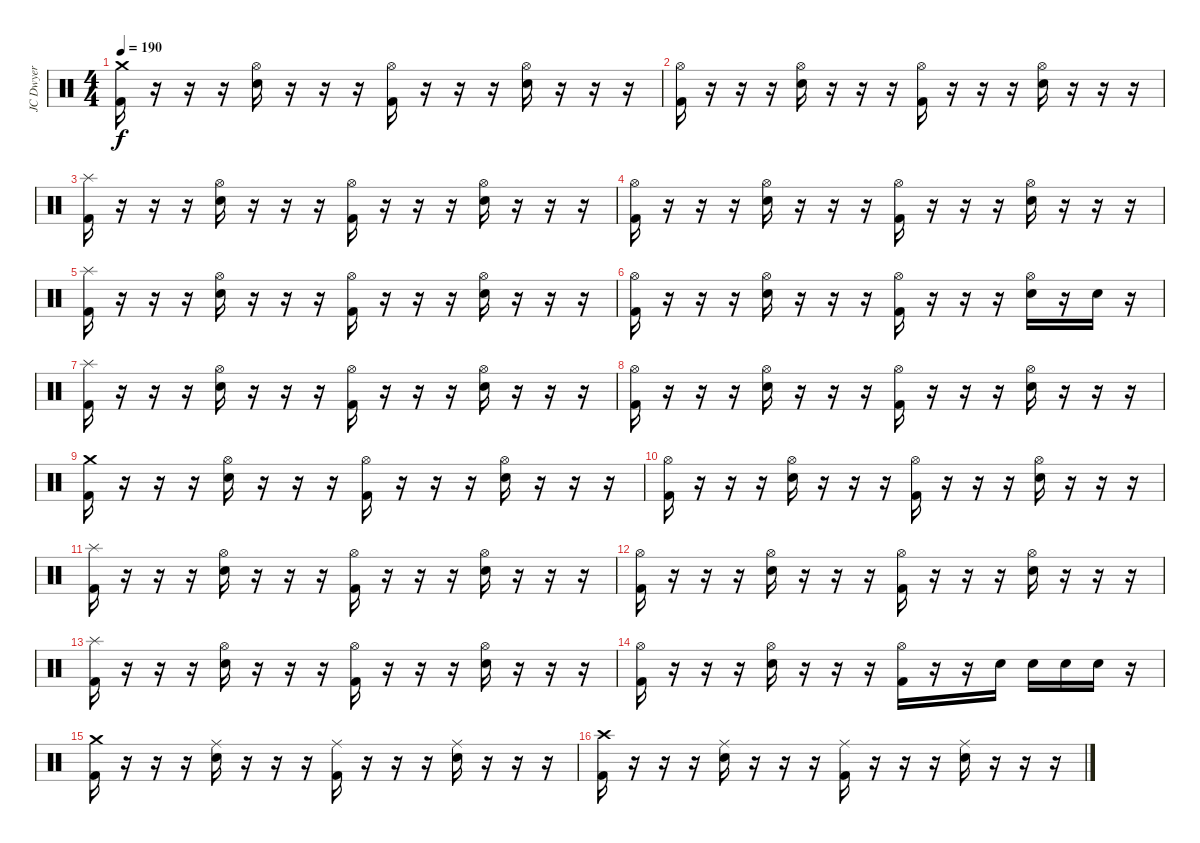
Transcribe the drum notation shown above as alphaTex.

\track ("JC Dwyer" "JC Dwyer") {instrument percussion}
\staff {score}
\articulation defaults
\ts (4 4)
\tempo 190
\clef neutral
\ks c
("Crash medium (hit)" "Kick (hit) 2").16{dy f} r.16 r.16 r.16 ("Hi-Hat (open)" "Electric Snare (hit)").16 r.16 r.16 r.16 ("Hi-Hat (open)" "Kick (hit) 2").16 r.16 r.16 r.16 ("Hi-Hat (open)" "Electric Snare (hit)").16 r.16 r.16 r.16 |
("Hi-Hat (open)" "Kick (hit) 2").16 r.16 r.16 r.16 ("Hi-Hat (open)" "Electric Snare (hit)").16 r.16 r.16 r.16 ("Hi-Hat (open)" "Kick (hit) 2").16 r.16 r.16 r.16 ("Hi-Hat (open)" "Electric Snare (hit)").16 r.16 r.16 r.16 |
("Splash (hit)" "Kick (hit) 2").16 r.16 r.16 r.16 ("Hi-Hat (open)" "Electric Snare (hit)").16 r.16 r.16 r.16 ("Hi-Hat (open)" "Kick (hit) 2").16 r.16 r.16 r.16 ("Hi-Hat (open)" "Electric Snare (hit)").16 r.16 r.16 r.16 |
("Hi-Hat (open)" "Kick (hit) 2").16 r.16 r.16 r.16 ("Hi-Hat (open)" "Electric Snare (hit)").16 r.16 r.16 r.16 ("Hi-Hat (open)" "Kick (hit) 2").16 r.16 r.16 r.16 ("Hi-Hat (open)" "Electric Snare (hit)").16 r.16 r.16 r.16 |
("Splash (hit)" "Kick (hit) 2").16 r.16 r.16 r.16 ("Hi-Hat (open)" "Electric Snare (hit)").16 r.16 r.16 r.16 ("Hi-Hat (open)" "Kick (hit) 2").16 r.16 r.16 r.16 ("Hi-Hat (open)" "Electric Snare (hit)").16 r.16 r.16 r.16 |
("Hi-Hat (open)" "Kick (hit) 2").16 r.16 r.16 r.16 ("Hi-Hat (open)" "Electric Snare (hit)").16 r.16 r.16 r.16 ("Hi-Hat (open)" "Kick (hit) 2").16 r.16 r.16 r.16 ("Hi-Hat (open)" "Electric Snare (hit)").16 r.16 "Electric Snare (hit)".16 r.16 |
("Splash (hit)" "Kick (hit) 2").16 r.16 r.16 r.16 ("Hi-Hat (open)" "Electric Snare (hit)").16 r.16 r.16 r.16 ("Hi-Hat (open)" "Kick (hit) 2").16 r.16 r.16 r.16 ("Hi-Hat (open)" "Electric Snare (hit)").16 r.16 r.16 r.16 |
("Hi-Hat (open)" "Kick (hit) 2").16 r.16 r.16 r.16 ("Hi-Hat (open)" "Electric Snare (hit)").16 r.16 r.16 r.16 ("Hi-Hat (open)" "Kick (hit) 2").16 r.16 r.16 r.16 ("Hi-Hat (open)" "Electric Snare (hit)").16 r.16 r.16 r.16 |
("Crash medium (hit)" "Kick (hit) 2").16 r.16 r.16 r.16 ("Hi-Hat (open)" "Electric Snare (hit)").16 r.16 r.16 r.16 ("Hi-Hat (open)" "Kick (hit) 2").16 r.16 r.16 r.16 ("Hi-Hat (open)" "Electric Snare (hit)").16 r.16 r.16 r.16 |
("Hi-Hat (open)" "Kick (hit) 2").16 r.16 r.16 r.16 ("Hi-Hat (open)" "Electric Snare (hit)").16 r.16 r.16 r.16 ("Hi-Hat (open)" "Kick (hit) 2").16 r.16 r.16 r.16 ("Hi-Hat (open)" "Electric Snare (hit)").16 r.16 r.16 r.16 |
("Splash (hit)" "Kick (hit) 2").16 r.16 r.16 r.16 ("Hi-Hat (open)" "Electric Snare (hit)").16 r.16 r.16 r.16 ("Hi-Hat (open)" "Kick (hit) 2").16 r.16 r.16 r.16 ("Hi-Hat (open)" "Electric Snare (hit)").16 r.16 r.16 r.16 |
("Hi-Hat (open)" "Kick (hit) 2").16 r.16 r.16 r.16 ("Hi-Hat (open)" "Electric Snare (hit)").16 r.16 r.16 r.16 ("Hi-Hat (open)" "Kick (hit) 2").16 r.16 r.16 r.16 ("Hi-Hat (open)" "Electric Snare (hit)").16 r.16 r.16 r.16 |
("Splash (hit)" "Kick (hit) 2").16 r.16 r.16 r.16 ("Hi-Hat (open)" "Electric Snare (hit)").16 r.16 r.16 r.16 ("Hi-Hat (open)" "Kick (hit) 2").16 r.16 r.16 r.16 ("Hi-Hat (open)" "Electric Snare (hit)").16 r.16 r.16 r.16 |
("Hi-Hat (open)" "Kick (hit) 2").16 r.16 r.16 r.16 ("Hi-Hat (open)" "Electric Snare (hit)").16 r.16 r.16 r.16 ("Hi-Hat (open)" "Kick (hit) 2").16 r.16 r.16 "Electric Snare (hit)".16 "Electric Snare (hit)".16 "Electric Snare (hit)".16 "Electric Snare (hit)".16 r.16 |
("Crash medium (hit)" "Kick (hit) 2").16 r.16 r.16 r.16 ("Ride (middle)" "Electric Snare (hit)").16 r.16 r.16 r.16 ("Ride (middle)" "Kick (hit) 2").16 r.16 r.16 r.16 ("Ride (middle)" "Electric Snare (hit)").16 r.16 r.16 r.16 |
("Crash high (hit)" "Kick (hit) 2").16 r.16 r.16 r.16 ("Ride (middle)" "Electric Snare (hit)").16 r.16 r.16 r.16 ("Ride (middle)" "Kick (hit) 2").16 r.16 r.16 r.16 ("Ride (middle)" "Electric Snare (hit)").16 r.16 r.16 r.16
